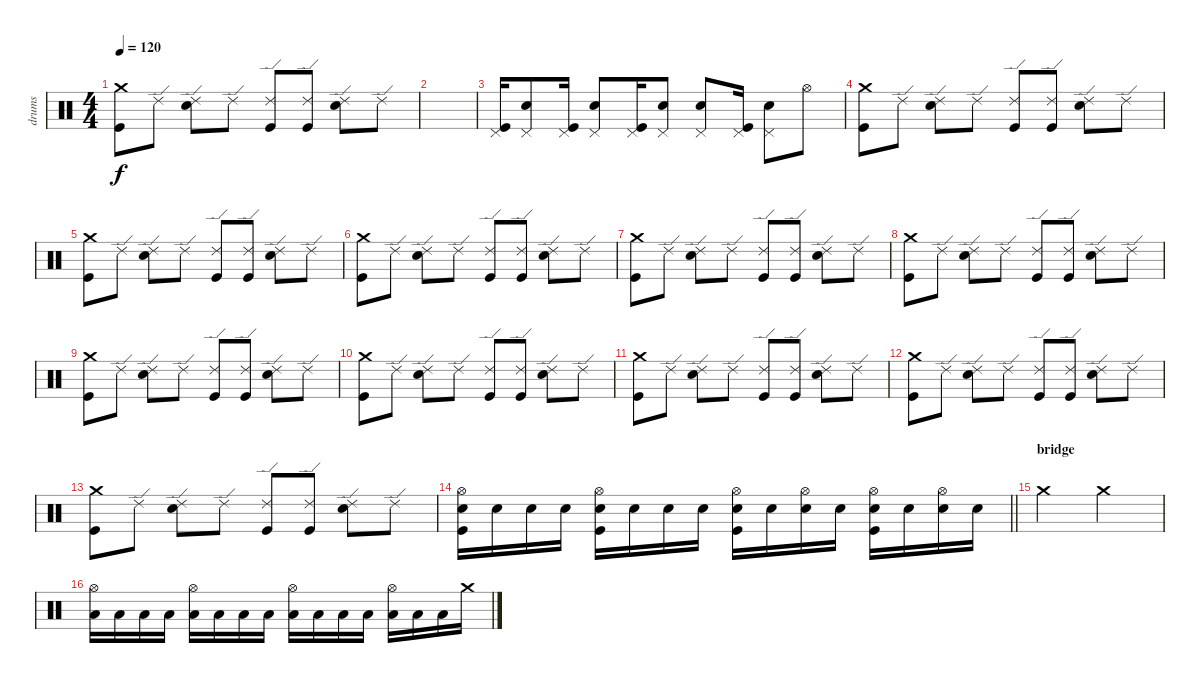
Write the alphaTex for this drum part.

\track ("drums" "drums") {instrument percussion}
\staff {score}
\articulation defaults
\ts (4 4)
\tempo 120
\clef neutral
\ks c
("Crash medium (hit)" "Kick (hit)").8{dy f} "Ride (edge) 2".8 ("Ride (edge) 2" "Electric Snare (hit)").8 "Ride (edge) 2".8 ("Ride (edge) 2" "Kick (hit)").8 ("Ride (edge) 2" "Kick (hit)").8 ("Ride (edge) 2" "Electric Snare (hit)").8 "Ride (edge) 2".8 |
|
("Pedal Hi-Hat (hit)" "Kick (hit)").16 ("Pedal Hi-Hat (hit)" "Electric Snare (hit)").8 ("Pedal Hi-Hat (hit)" "Kick (hit)").16 ("Pedal Hi-Hat (hit)" "Electric Snare (hit)").8 ("Pedal Hi-Hat (hit)" "Kick (hit)").16 ("Pedal Hi-Hat (hit)" "Electric Snare (hit)").8 ("Pedal Hi-Hat (hit)" "Electric Snare (hit)").8 ("Pedal Hi-Hat (hit)" "Kick (hit)").16 ("Pedal Hi-Hat (hit)" "Electric Snare (hit)").8 "Hi-Hat (open)".8 |
("Crash medium (hit)" "Kick (hit)").8 "Ride (edge) 2".8 ("Ride (edge) 2" "Electric Snare (hit)").8 "Ride (edge) 2".8 ("Ride (edge) 2" "Kick (hit)").8 ("Ride (edge) 2" "Kick (hit)").8 ("Ride (edge) 2" "Electric Snare (hit)").8 "Ride (edge) 2".8 |
("Crash medium (hit)" "Kick (hit)").8 "Ride (edge) 2".8 ("Ride (edge) 2" "Electric Snare (hit)").8 "Ride (edge) 2".8 ("Ride (edge) 2" "Kick (hit)").8 ("Ride (edge) 2" "Kick (hit)").8 ("Ride (edge) 2" "Electric Snare (hit)").8 "Ride (edge) 2".8 |
("Crash medium (hit)" "Kick (hit)").8 "Ride (edge) 2".8 ("Ride (edge) 2" "Electric Snare (hit)").8 "Ride (edge) 2".8 ("Ride (edge) 2" "Kick (hit)").8 ("Ride (edge) 2" "Kick (hit)").8 ("Ride (edge) 2" "Electric Snare (hit)").8 "Ride (edge) 2".8 |
("Crash medium (hit)" "Kick (hit)").8 "Ride (edge) 2".8 ("Ride (edge) 2" "Electric Snare (hit)").8 "Ride (edge) 2".8 ("Ride (edge) 2" "Kick (hit)").8 ("Ride (edge) 2" "Kick (hit)").8 ("Ride (edge) 2" "Electric Snare (hit)").8 "Ride (edge) 2".8 |
("Crash medium (hit)" "Kick (hit)").8 "Ride (edge) 2".8 ("Ride (edge) 2" "Electric Snare (hit)").8 "Ride (edge) 2".8 ("Ride (edge) 2" "Kick (hit)").8 ("Ride (edge) 2" "Kick (hit)").8 ("Ride (edge) 2" "Electric Snare (hit)").8 "Ride (edge) 2".8 |
("Crash medium (hit)" "Kick (hit)").8 "Ride (edge) 2".8 ("Ride (edge) 2" "Electric Snare (hit)").8 "Ride (edge) 2".8 ("Ride (edge) 2" "Kick (hit)").8 ("Ride (edge) 2" "Kick (hit)").8 ("Ride (edge) 2" "Electric Snare (hit)").8 "Ride (edge) 2".8 |
("Crash medium (hit)" "Kick (hit)").8 "Ride (edge) 2".8 ("Ride (edge) 2" "Electric Snare (hit)").8 "Ride (edge) 2".8 ("Ride (edge) 2" "Kick (hit)").8 ("Ride (edge) 2" "Kick (hit)").8 ("Ride (edge) 2" "Electric Snare (hit)").8 "Ride (edge) 2".8 |
("Crash medium (hit)" "Kick (hit)").8 "Ride (edge) 2".8 ("Ride (edge) 2" "Electric Snare (hit)").8 "Ride (edge) 2".8 ("Ride (edge) 2" "Kick (hit)").8 ("Ride (edge) 2" "Kick (hit)").8 ("Ride (edge) 2" "Electric Snare (hit)").8 "Ride (edge) 2".8 |
("Crash medium (hit)" "Kick (hit)").8 "Ride (edge) 2".8 ("Ride (edge) 2" "Electric Snare (hit)").8 "Ride (edge) 2".8 ("Ride (edge) 2" "Kick (hit)").8 ("Ride (edge) 2" "Kick (hit)").8 ("Ride (edge) 2" "Electric Snare (hit)").8 "Ride (edge) 2".8 |
("Crash medium (hit)" "Kick (hit)").8 "Ride (edge) 2".8 ("Ride (edge) 2" "Electric Snare (hit)").8 "Ride (edge) 2".8 ("Ride (edge) 2" "Kick (hit)").8 ("Ride (edge) 2" "Kick (hit)").8 ("Ride (edge) 2" "Electric Snare (hit)").8 "Ride (edge) 2".8 |
\barLineRight lightlight
("Hi-Hat (open)" "Electric Snare (hit)" "Kick (hit)").16 "Electric Snare (hit)".16 "Electric Snare (hit)".16 "Electric Snare (hit)".16 ("Hi-Hat (open)" "Electric Snare (hit)" "Kick (hit)").16 "Electric Snare (hit)".16 "Electric Snare (hit)".16 "Electric Snare (hit)".16 ("Hi-Hat (open)" "Electric Snare (hit)" "Kick (hit)").16 "Electric Snare (hit)".16 ("Hi-Hat (open)" "Electric Snare (hit)").16 "Electric Snare (hit)".16 ("Hi-Hat (open)" "Electric Snare (hit)" "Kick (hit)").16 "Electric Snare (hit)".16 ("Hi-Hat (open)" "Electric Snare (hit)").16 "Electric Snare (hit)".16 |
\section ("" "bridge")
"Crash medium (hit)".2 "Crash medium (hit)".2 |
("Hi-Hat (open)" "Low Tom (hit)").16 "Low Floor Tom (hit)".16 "Low Floor Tom (hit)".16 "Low Floor Tom (hit)".16 ("Hi-Hat (open)" "Low Tom (hit)").16 "Low Floor Tom (hit)".16 "Low Floor Tom (hit)".16 "Low Floor Tom (hit)".16 ("Hi-Hat (open)" "Low Tom (hit)").16 "Low Floor Tom (hit)".16 "Low Floor Tom (hit)".16 "Low Floor Tom (hit)".16 ("Hi-Hat (open)" "Low Tom (hit)").16 "Low Floor Tom (hit)".16 "Low Floor Tom (hit)".16 "Crash medium (hit)".16
